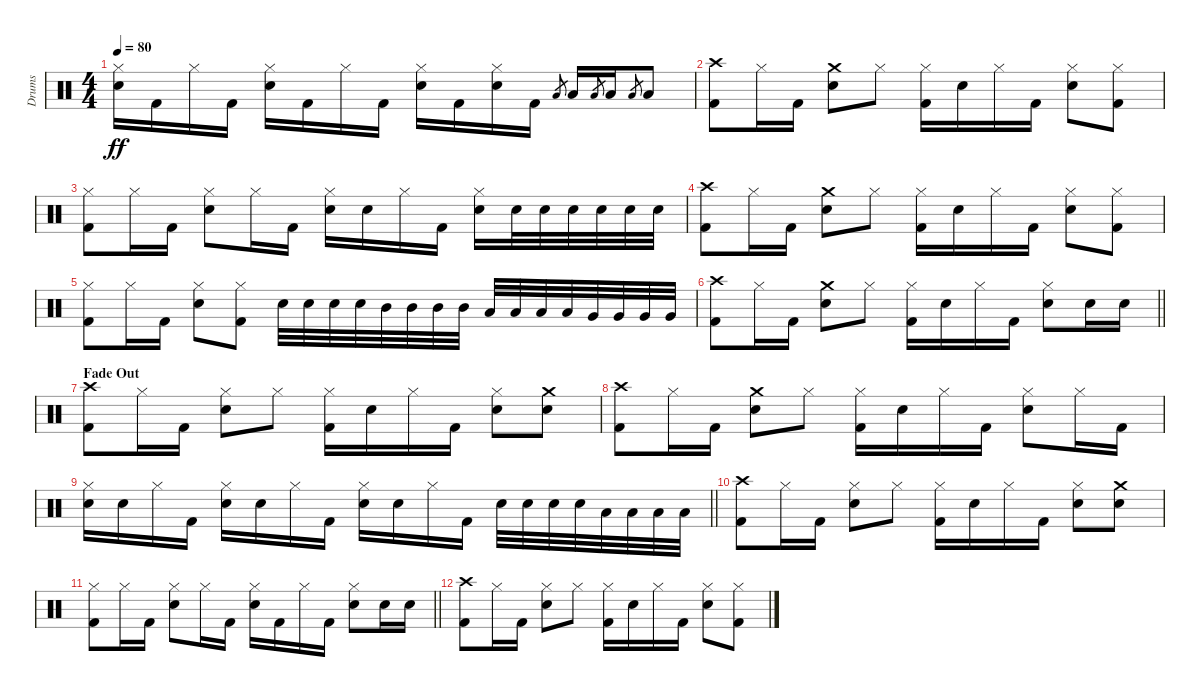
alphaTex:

\track ("Drums" "Drums") {instrument percussion}
\staff {score}
\articulation defaults
\ts (4 4)
\tempo 80
\clef neutral
\ks c
("Hi-Hat (closed)" "Snare (hit) 2").16{dy ff} "Kick (hit) 2".16 "Hi-Hat (closed)".16 "Kick (hit) 2".16 ("Hi-Hat (closed)" "Snare (hit) 2").16 "Kick (hit) 2".16 "Hi-Hat (closed)".16 "Kick (hit) 2".16 ("Hi-Hat (closed)" "Snare (hit) 2").16 "Kick (hit) 2".16 ("Hi-Hat (closed)" "Snare (hit) 2").16 "Kick (hit) 2".16 "Low Tom (hit)".8{gr} "Low Tom (hit)".16 "Low Tom (hit)".8{gr} "Low Tom (hit)".16 "Low Tom (hit)".8{gr} "Low Tom (hit)".8 |
("Crash high (hit)" "Kick (hit) 2").8 "Hi-Hat (closed)".16 "Kick (hit) 2".16 ("Crash medium (hit)" "Snare (hit) 2").8 "Hi-Hat (closed)".8 ("Hi-Hat (closed)" "Kick (hit) 2").16 "Snare (hit) 2".16 "Hi-Hat (closed)".16 "Kick (hit) 2".16 ("Hi-Hat (closed)" "Snare (hit) 2").8 ("Hi-Hat (closed)" "Kick (hit) 2").8 |
("Hi-Hat (closed)" "Kick (hit) 2").8 "Hi-Hat (closed)".16 "Kick (hit) 2".16 ("Hi-Hat (closed)" "Snare (hit) 2").8 "Hi-Hat (closed)".16 "Kick (hit) 2".16 ("Hi-Hat (closed)" "Snare (hit) 2").16 "Snare (hit) 2".16 "Hi-Hat (closed)".16 "Kick (hit) 2".16 ("Hi-Hat (closed)" "Snare (hit) 2").16 "Snare (hit) 2".32 "Snare (hit) 2".32 "Snare (hit) 2".32 "Snare (hit) 2".32 "Snare (hit) 2".32 "Snare (hit) 2".32 |
("Crash high (hit)" "Kick (hit) 2").8 "Hi-Hat (closed)".16 "Kick (hit) 2".16 ("Crash medium (hit)" "Snare (hit) 2").8 "Hi-Hat (closed)".8 ("Hi-Hat (closed)" "Kick (hit) 2").16 "Snare (hit) 2".16 "Hi-Hat (closed)".16 "Kick (hit) 2".16 ("Hi-Hat (closed)" "Snare (hit) 2").8 ("Hi-Hat (closed)" "Kick (hit) 2").8 |
("Hi-Hat (closed)" "Kick (hit) 2").8 "Hi-Hat (closed)".16 "Kick (hit) 2".16 ("Hi-Hat (closed)" "Snare (hit) 2").8 ("Hi-Hat (closed)" "Kick (hit) 2").8 "Snare (hit) 2".32 "Snare (hit) 2".32 "Snare (hit) 2".32 "Snare (hit) 2".32 "Mid Tom (hit)".32 "Mid Tom (hit)".32 "Mid Tom (hit)".32 "Mid Tom (hit)".32 "Low Tom (hit)".32 "Low Tom (hit)".32 "Low Tom (hit)".32 "Low Tom (hit)".32 "Very Low Tom (hit)".32 "Very Low Tom (hit)".32 "Very Low Tom (hit)".32 "Very Low Tom (hit)".32 |
\barLineRight lightlight
("Crash high (hit)" "Kick (hit) 2").8 "Hi-Hat (closed)".16 "Kick (hit) 2".16 ("Crash medium (hit)" "Snare (hit) 2").8 "Hi-Hat (closed)".8 ("Hi-Hat (closed)" "Kick (hit) 2").16 "Snare (hit) 2".16 "Hi-Hat (closed)".16 "Kick (hit) 2".16 ("Hi-Hat (closed)" "Snare (hit) 2").8 "Snare (hit) 2".16 "Snare (hit) 2".16 |
\section ("" "Fade Out")
("Crash high (hit)" "Kick (hit) 2").8{volume 8} "Hi-Hat (closed)".16 "Kick (hit) 2".16 ("Hi-Hat (closed)" "Snare (hit) 2").8 "Hi-Hat (closed)".8 ("Hi-Hat (closed)" "Kick (hit) 2").16 "Snare (hit) 2".16 "Hi-Hat (closed)".16 "Kick (hit) 2".16 ("Hi-Hat (closed)" "Snare (hit) 2").8 ("Crash medium (hit)" "Snare (hit) 2").8 |
("Crash high (hit)" "Kick (hit) 2").8 "Hi-Hat (closed)".16 "Kick (hit) 2".16 ("Crash medium (hit)" "Snare (hit) 2").8 "Hi-Hat (closed)".8 ("Hi-Hat (closed)" "Kick (hit) 2").16 "Snare (hit) 2".16 "Hi-Hat (closed)".16 "Kick (hit) 2".16 ("Hi-Hat (closed)" "Snare (hit) 2").8 "Hi-Hat (closed)".16 "Kick (hit) 2".16 |
\barLineRight lightlight
("Hi-Hat (closed)" "Snare (hit) 2").16{volume 4} "Snare (hit) 2".16 "Hi-Hat (closed)".16 "Kick (hit) 2".16 ("Hi-Hat (closed)" "Snare (hit) 2").16 "Snare (hit) 2".16 "Hi-Hat (closed)".16 "Kick (hit) 2".16 ("Hi-Hat (closed)" "Snare (hit) 2").16 "Snare (hit) 2".16 "Hi-Hat (closed)".16 "Kick (hit) 2".16 "Snare (hit) 2".32 "Snare (hit) 2".32 "Snare (hit) 2".32 "Snare (hit) 2".32 "Low Tom (hit)".32 "Low Tom (hit)".32 "Low Tom (hit)".32 "Low Tom (hit)".32 |
("Crash high (hit)" "Kick (hit) 2").8 "Hi-Hat (closed)".16 "Kick (hit) 2".16 ("Hi-Hat (closed)" "Snare (hit) 2").8 "Hi-Hat (closed)".8 ("Hi-Hat (closed)" "Kick (hit) 2").16 "Snare (hit) 2".16 "Hi-Hat (closed)".16 "Kick (hit) 2".16 ("Hi-Hat (closed)" "Snare (hit) 2").8 ("Crash medium (hit)" "Snare (hit) 2").8 |
\barLineRight lightlight
("Hi-Hat (closed)" "Kick (hit) 2").8{volume 0} "Hi-Hat (closed)".16 "Kick (hit) 2".16 ("Hi-Hat (closed)" "Snare (hit) 2").8 "Hi-Hat (closed)".16 "Kick (hit) 2".16 ("Hi-Hat (closed)" "Snare (hit) 2").16 "Kick (hit) 2".16 "Hi-Hat (closed)".16 "Kick (hit) 2".16 ("Hi-Hat (closed)" "Snare (hit) 2").8 "Snare (hit) 2".16 "Snare (hit) 2".16 |
("Crash high (hit)" "Kick (hit) 2").8 "Hi-Hat (closed)".16 "Kick (hit) 2".16 ("Hi-Hat (closed)" "Snare (hit) 2").8 "Hi-Hat (closed)".8 ("Hi-Hat (closed)" "Kick (hit) 2").16 "Snare (hit) 2".16 "Hi-Hat (closed)".16 "Kick (hit) 2".16 ("Hi-Hat (closed)" "Snare (hit) 2").8 ("Hi-Hat (closed)" "Kick (hit) 2").8
